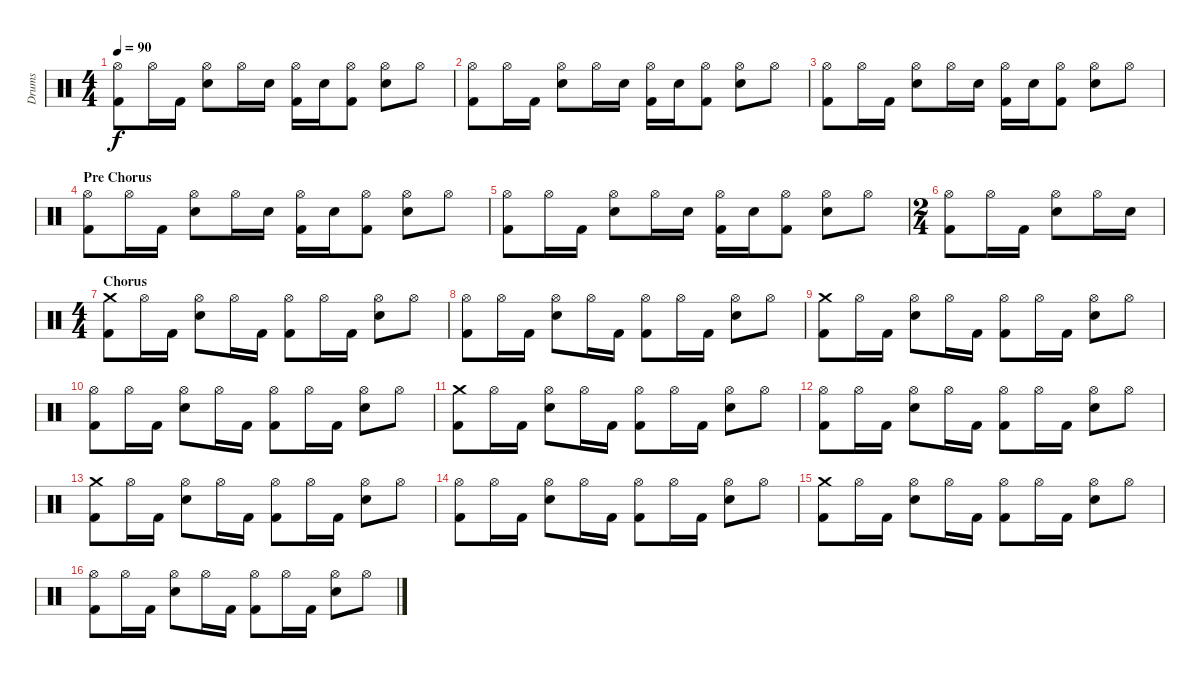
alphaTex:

\track ("Drums" "Drums") {instrument percussion}
\staff {score}
\articulation defaults
\ts (4 4)
\tempo 90
\clef neutral
\ks c
("Hi-Hat (open)" "Kick (hit) 2").8{dy f} "Hi-Hat (open)".16 "Kick (hit) 2".16 ("Hi-Hat (open)" "Electric Snare (hit)").8 "Hi-Hat (open)".16 "Electric Snare (hit)".16 ("Hi-Hat (open)" "Kick (hit) 2").16 "Electric Snare (hit)".16 ("Hi-Hat (open)" "Kick (hit) 2").8 ("Hi-Hat (open)" "Electric Snare (hit)").8 "Hi-Hat (open)".8 |
("Hi-Hat (open)" "Kick (hit) 2").8 "Hi-Hat (open)".16 "Kick (hit) 2".16 ("Hi-Hat (open)" "Electric Snare (hit)").8 "Hi-Hat (open)".16 "Electric Snare (hit)".16 ("Hi-Hat (open)" "Kick (hit) 2").16 "Electric Snare (hit)".16 ("Hi-Hat (open)" "Kick (hit) 2").8 ("Hi-Hat (open)" "Electric Snare (hit)").8 "Hi-Hat (open)".8 |
("Hi-Hat (open)" "Kick (hit) 2").8 "Hi-Hat (open)".16 "Kick (hit) 2".16 ("Hi-Hat (open)" "Electric Snare (hit)").8 "Hi-Hat (open)".16 "Electric Snare (hit)".16 ("Hi-Hat (open)" "Kick (hit) 2").16 "Electric Snare (hit)".16 ("Hi-Hat (open)" "Kick (hit) 2").8 ("Hi-Hat (open)" "Electric Snare (hit)").8 "Hi-Hat (open)".8 |
\section ("" "Pre Chorus")
("Hi-Hat (open)" "Kick (hit) 2").8 "Hi-Hat (open)".16 "Kick (hit) 2".16 ("Hi-Hat (open)" "Electric Snare (hit)").8 "Hi-Hat (open)".16 "Electric Snare (hit)".16 ("Hi-Hat (open)" "Kick (hit) 2").16 "Electric Snare (hit)".16 ("Hi-Hat (open)" "Kick (hit) 2").8 ("Hi-Hat (open)" "Electric Snare (hit)").8 "Hi-Hat (open)".8 |
("Hi-Hat (open)" "Kick (hit) 2").8 "Hi-Hat (open)".16 "Kick (hit) 2".16 ("Hi-Hat (open)" "Electric Snare (hit)").8 "Hi-Hat (open)".16 "Electric Snare (hit)".16 ("Hi-Hat (open)" "Kick (hit) 2").16 "Electric Snare (hit)".16 ("Hi-Hat (open)" "Kick (hit) 2").8 ("Hi-Hat (open)" "Electric Snare (hit)").8 "Hi-Hat (open)".8 |
\ts (2 4)
("Hi-Hat (open)" "Kick (hit) 2").8 "Hi-Hat (open)".16 "Kick (hit) 2".16 ("Hi-Hat (open)" "Electric Snare (hit)").8 "Hi-Hat (open)".16 "Electric Snare (hit)".16 |
\ts (4 4)
\section ("" "Chorus")
("Crash medium (hit)" "Kick (hit) 2").8 "Hi-Hat (open)".16 "Kick (hit) 2".16 ("Hi-Hat (open)" "Electric Snare (hit)").8 "Hi-Hat (open)".16 "Kick (hit) 2".16 ("Hi-Hat (open)" "Kick (hit) 2").8 "Hi-Hat (open)".16 "Kick (hit) 2".16 ("Hi-Hat (open)" "Electric Snare (hit)").8 "Hi-Hat (open)".8 |
("Hi-Hat (open)" "Kick (hit) 2").8 "Hi-Hat (open)".16 "Kick (hit) 2".16 ("Hi-Hat (open)" "Electric Snare (hit)").8 "Hi-Hat (open)".16 "Kick (hit) 2".16 ("Hi-Hat (open)" "Kick (hit) 2").8 "Hi-Hat (open)".16 "Kick (hit) 2".16 ("Hi-Hat (open)" "Electric Snare (hit)").8 "Hi-Hat (open)".8 |
("Crash medium (hit)" "Kick (hit) 2").8 "Hi-Hat (open)".16 "Kick (hit) 2".16 ("Hi-Hat (open)" "Electric Snare (hit)").8 "Hi-Hat (open)".16 "Kick (hit) 2".16 ("Hi-Hat (open)" "Kick (hit) 2").8 "Hi-Hat (open)".16 "Kick (hit) 2".16 ("Hi-Hat (open)" "Electric Snare (hit)").8 "Hi-Hat (open)".8 |
("Hi-Hat (open)" "Kick (hit) 2").8 "Hi-Hat (open)".16 "Kick (hit) 2".16 ("Hi-Hat (open)" "Electric Snare (hit)").8 "Hi-Hat (open)".16 "Kick (hit) 2".16 ("Hi-Hat (open)" "Kick (hit) 2").8 "Hi-Hat (open)".16 "Kick (hit) 2".16 ("Hi-Hat (open)" "Electric Snare (hit)").8 "Hi-Hat (open)".8 |
("Crash medium (hit)" "Kick (hit) 2").8 "Hi-Hat (open)".16 "Kick (hit) 2".16 ("Hi-Hat (open)" "Electric Snare (hit)").8 "Hi-Hat (open)".16 "Kick (hit) 2".16 ("Hi-Hat (open)" "Kick (hit) 2").8 "Hi-Hat (open)".16 "Kick (hit) 2".16 ("Hi-Hat (open)" "Electric Snare (hit)").8 "Hi-Hat (open)".8 |
("Hi-Hat (open)" "Kick (hit) 2").8 "Hi-Hat (open)".16 "Kick (hit) 2".16 ("Hi-Hat (open)" "Electric Snare (hit)").8 "Hi-Hat (open)".16 "Kick (hit) 2".16 ("Hi-Hat (open)" "Kick (hit) 2").8 "Hi-Hat (open)".16 "Kick (hit) 2".16 ("Hi-Hat (open)" "Electric Snare (hit)").8 "Hi-Hat (open)".8 |
("Crash medium (hit)" "Kick (hit) 2").8 "Hi-Hat (open)".16 "Kick (hit) 2".16 ("Hi-Hat (open)" "Electric Snare (hit)").8 "Hi-Hat (open)".16 "Kick (hit) 2".16 ("Hi-Hat (open)" "Kick (hit) 2").8 "Hi-Hat (open)".16 "Kick (hit) 2".16 ("Hi-Hat (open)" "Electric Snare (hit)").8 "Hi-Hat (open)".8 |
("Hi-Hat (open)" "Kick (hit) 2").8 "Hi-Hat (open)".16 "Kick (hit) 2".16 ("Hi-Hat (open)" "Electric Snare (hit)").8 "Hi-Hat (open)".16 "Kick (hit) 2".16 ("Hi-Hat (open)" "Kick (hit) 2").8 "Hi-Hat (open)".16 "Kick (hit) 2".16 ("Hi-Hat (open)" "Electric Snare (hit)").8 "Hi-Hat (open)".8 |
("Crash medium (hit)" "Kick (hit) 2").8 "Hi-Hat (open)".16 "Kick (hit) 2".16 ("Hi-Hat (open)" "Electric Snare (hit)").8 "Hi-Hat (open)".16 "Kick (hit) 2".16 ("Hi-Hat (open)" "Kick (hit) 2").8 "Hi-Hat (open)".16 "Kick (hit) 2".16 ("Hi-Hat (open)" "Electric Snare (hit)").8 "Hi-Hat (open)".8 |
("Hi-Hat (open)" "Kick (hit) 2").8 "Hi-Hat (open)".16 "Kick (hit) 2".16 ("Hi-Hat (open)" "Electric Snare (hit)").8 "Hi-Hat (open)".16 "Kick (hit) 2".16 ("Hi-Hat (open)" "Kick (hit) 2").8 "Hi-Hat (open)".16 "Kick (hit) 2".16 ("Hi-Hat (open)" "Electric Snare (hit)").8 "Hi-Hat (open)".8
